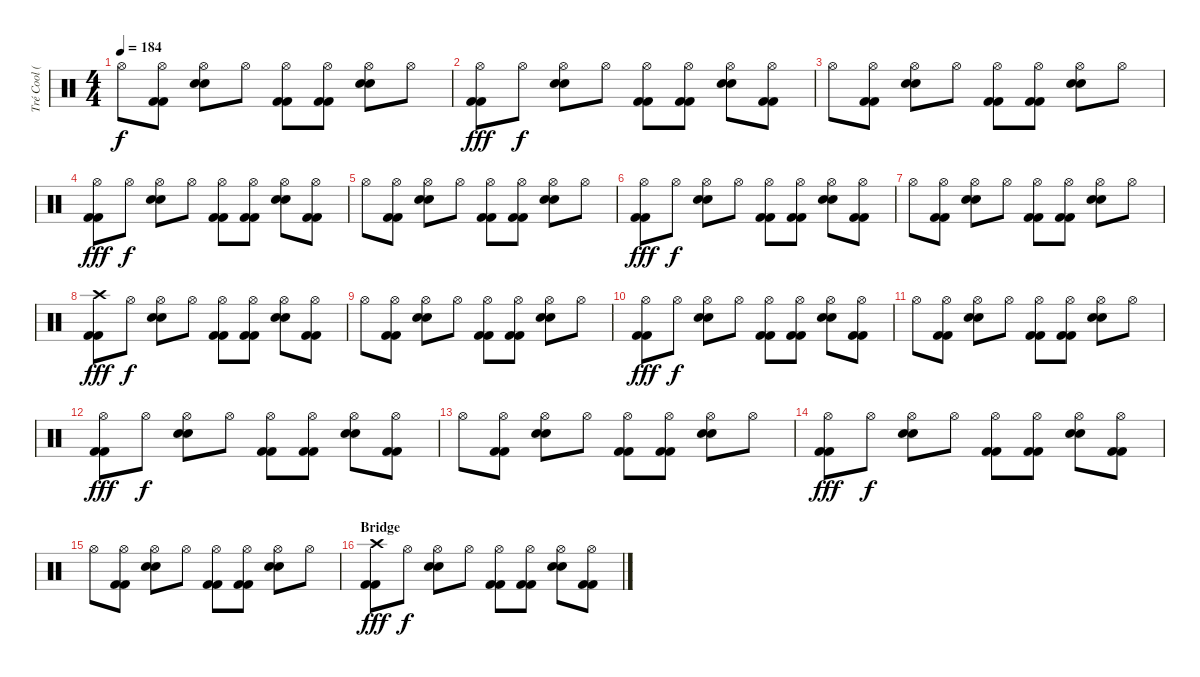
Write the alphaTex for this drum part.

\track ("Tré Cool (Drums)" "Tré Cool (") {instrument percussion}
\staff {score}
\articulation defaults
\ts (4 4)
\tempo 184
\clef neutral
\ks c "Hi-Hat (open)".8{dy f}
("Kick (hit) 2" "Kick (hit) 2" "Hi-Hat (open)").8 ("Electric Snare (hit)" "Electric Snare (hit)" "Hi-Hat (open)").8 "Hi-Hat (open)".8 ("Kick (hit) 2" "Kick (hit) 2" "Hi-Hat (open)").8 ("Kick (hit) 2" "Kick (hit) 2" "Hi-Hat (open)").8 ("Electric Snare (hit)" "Electric Snare (hit)" "Hi-Hat (open)").8 "Hi-Hat (open)".8 |
("Kick (hit) 2" "Kick (hit) 2" "Hi-Hat (open)").8{dy fff} "Hi-Hat (open)".8{dy f} ("Electric Snare (hit)" "Electric Snare (hit)" "Hi-Hat (open)").8 "Hi-Hat (open)".8 ("Kick (hit) 2" "Kick (hit) 2" "Hi-Hat (open)").8 ("Kick (hit) 2" "Kick (hit) 2" "Hi-Hat (open)").8 ("Electric Snare (hit)" "Electric Snare (hit)" "Hi-Hat (open)").8 ("Kick (hit) 2" "Kick (hit) 2" "Hi-Hat (open)").8 |
"Hi-Hat (open)".8 ("Kick (hit) 2" "Kick (hit) 2" "Hi-Hat (open)").8 ("Electric Snare (hit)" "Electric Snare (hit)" "Hi-Hat (open)").8 "Hi-Hat (open)".8 ("Kick (hit) 2" "Kick (hit) 2" "Hi-Hat (open)").8 ("Kick (hit) 2" "Kick (hit) 2" "Hi-Hat (open)").8 ("Electric Snare (hit)" "Electric Snare (hit)" "Hi-Hat (open)").8 "Hi-Hat (open)".8 |
("Kick (hit) 2" "Kick (hit) 2" "Hi-Hat (open)").8{dy fff} "Hi-Hat (open)".8{dy f} ("Electric Snare (hit)" "Electric Snare (hit)" "Hi-Hat (open)").8 "Hi-Hat (open)".8 ("Kick (hit) 2" "Kick (hit) 2" "Hi-Hat (open)").8 ("Kick (hit) 2" "Kick (hit) 2" "Hi-Hat (open)").8 ("Electric Snare (hit)" "Electric Snare (hit)" "Hi-Hat (open)").8 ("Kick (hit) 2" "Kick (hit) 2" "Hi-Hat (open)").8 |
"Hi-Hat (open)".8 ("Kick (hit) 2" "Kick (hit) 2" "Hi-Hat (open)").8 ("Electric Snare (hit)" "Electric Snare (hit)" "Hi-Hat (open)").8 "Hi-Hat (open)".8 ("Kick (hit) 2" "Kick (hit) 2" "Hi-Hat (open)").8 ("Kick (hit) 2" "Kick (hit) 2" "Hi-Hat (open)").8 ("Electric Snare (hit)" "Electric Snare (hit)" "Hi-Hat (open)").8 "Hi-Hat (open)".8 |
("Kick (hit) 2" "Kick (hit) 2" "Hi-Hat (open)").8{dy fff} "Hi-Hat (open)".8{dy f} ("Electric Snare (hit)" "Electric Snare (hit)" "Hi-Hat (open)").8 "Hi-Hat (open)".8 ("Kick (hit) 2" "Kick (hit) 2" "Hi-Hat (open)").8 ("Kick (hit) 2" "Kick (hit) 2" "Hi-Hat (open)").8 ("Electric Snare (hit)" "Electric Snare (hit)" "Hi-Hat (open)").8 ("Kick (hit) 2" "Kick (hit) 2" "Hi-Hat (open)").8 |
"Hi-Hat (open)".8 ("Kick (hit) 2" "Kick (hit) 2" "Hi-Hat (open)").8 ("Electric Snare (hit)" "Electric Snare (hit)" "Hi-Hat (open)").8 "Hi-Hat (open)".8 ("Kick (hit) 2" "Kick (hit) 2" "Hi-Hat (open)").8 ("Kick (hit) 2" "Kick (hit) 2" "Hi-Hat (open)").8 ("Electric Snare (hit)" "Electric Snare (hit)" "Hi-Hat (open)").8 "Hi-Hat (open)".8 |
("Kick (hit) 2" "Kick (hit) 2" "Crash high (hit)").8{dy fff} "Hi-Hat (open)".8{dy f} ("Electric Snare (hit)" "Electric Snare (hit)" "Hi-Hat (open)").8 "Hi-Hat (open)".8 ("Kick (hit) 2" "Kick (hit) 2" "Hi-Hat (open)").8 ("Kick (hit) 2" "Kick (hit) 2" "Hi-Hat (open)").8 ("Electric Snare (hit)" "Electric Snare (hit)" "Hi-Hat (open)").8 ("Kick (hit) 2" "Kick (hit) 2" "Hi-Hat (open)").8 |
"Hi-Hat (open)".8 ("Kick (hit) 2" "Kick (hit) 2" "Hi-Hat (open)").8 ("Electric Snare (hit)" "Electric Snare (hit)" "Hi-Hat (open)").8 "Hi-Hat (open)".8 ("Kick (hit) 2" "Kick (hit) 2" "Hi-Hat (open)").8 ("Kick (hit) 2" "Kick (hit) 2" "Hi-Hat (open)").8 ("Electric Snare (hit)" "Electric Snare (hit)" "Hi-Hat (open)").8 "Hi-Hat (open)".8 |
("Kick (hit) 2" "Kick (hit) 2" "Hi-Hat (open)").8{dy fff} "Hi-Hat (open)".8{dy f} ("Electric Snare (hit)" "Electric Snare (hit)" "Hi-Hat (open)").8 "Hi-Hat (open)".8 ("Kick (hit) 2" "Kick (hit) 2" "Hi-Hat (open)").8 ("Kick (hit) 2" "Kick (hit) 2" "Hi-Hat (open)").8 ("Electric Snare (hit)" "Electric Snare (hit)" "Hi-Hat (open)").8 ("Kick (hit) 2" "Kick (hit) 2" "Hi-Hat (open)").8 |
"Hi-Hat (open)".8 ("Kick (hit) 2" "Kick (hit) 2" "Hi-Hat (open)").8 ("Electric Snare (hit)" "Electric Snare (hit)" "Hi-Hat (open)").8 "Hi-Hat (open)".8 ("Kick (hit) 2" "Kick (hit) 2" "Hi-Hat (open)").8 ("Kick (hit) 2" "Kick (hit) 2" "Hi-Hat (open)").8 ("Electric Snare (hit)" "Electric Snare (hit)" "Hi-Hat (open)").8 "Hi-Hat (open)".8 |
("Kick (hit) 2" "Kick (hit) 2" "Hi-Hat (open)").8{dy fff} "Hi-Hat (open)".8{dy f} ("Electric Snare (hit)" "Electric Snare (hit)" "Hi-Hat (open)").8 "Hi-Hat (open)".8 ("Kick (hit) 2" "Kick (hit) 2" "Hi-Hat (open)").8 ("Kick (hit) 2" "Kick (hit) 2" "Hi-Hat (open)").8 ("Electric Snare (hit)" "Electric Snare (hit)" "Hi-Hat (open)").8 ("Kick (hit) 2" "Kick (hit) 2" "Hi-Hat (open)").8 |
"Hi-Hat (open)".8 ("Kick (hit) 2" "Kick (hit) 2" "Hi-Hat (open)").8 ("Electric Snare (hit)" "Electric Snare (hit)" "Hi-Hat (open)").8 "Hi-Hat (open)".8 ("Kick (hit) 2" "Kick (hit) 2" "Hi-Hat (open)").8 ("Kick (hit) 2" "Kick (hit) 2" "Hi-Hat (open)").8 ("Electric Snare (hit)" "Electric Snare (hit)" "Hi-Hat (open)").8 "Hi-Hat (open)".8 |
("Kick (hit) 2" "Kick (hit) 2" "Hi-Hat (open)").8{dy fff} "Hi-Hat (open)".8{dy f} ("Electric Snare (hit)" "Electric Snare (hit)" "Hi-Hat (open)").8 "Hi-Hat (open)".8 ("Kick (hit) 2" "Kick (hit) 2" "Hi-Hat (open)").8 ("Kick (hit) 2" "Kick (hit) 2" "Hi-Hat (open)").8 ("Electric Snare (hit)" "Electric Snare (hit)" "Hi-Hat (open)").8 ("Kick (hit) 2" "Kick (hit) 2" "Hi-Hat (open)").8 |
"Hi-Hat (open)".8 ("Kick (hit) 2" "Kick (hit) 2" "Hi-Hat (open)").8 ("Electric Snare (hit)" "Electric Snare (hit)" "Hi-Hat (open)").8 "Hi-Hat (open)".8 ("Kick (hit) 2" "Kick (hit) 2" "Hi-Hat (open)").8 ("Kick (hit) 2" "Kick (hit) 2" "Hi-Hat (open)").8 ("Electric Snare (hit)" "Electric Snare (hit)" "Hi-Hat (open)").8 "Hi-Hat (open)".8 |
\section ("" "Bridge")
("Kick (hit) 2" "Kick (hit) 2" "Crash high (hit)").8{dy fff} "Hi-Hat (open)".8{dy f} ("Electric Snare (hit)" "Electric Snare (hit)" "Hi-Hat (open)").8 "Hi-Hat (open)".8 ("Kick (hit) 2" "Kick (hit) 2" "Hi-Hat (open)").8 ("Kick (hit) 2" "Kick (hit) 2" "Hi-Hat (open)").8 ("Electric Snare (hit)" "Electric Snare (hit)" "Hi-Hat (open)").8 ("Kick (hit) 2" "Kick (hit) 2" "Hi-Hat (open)").8
